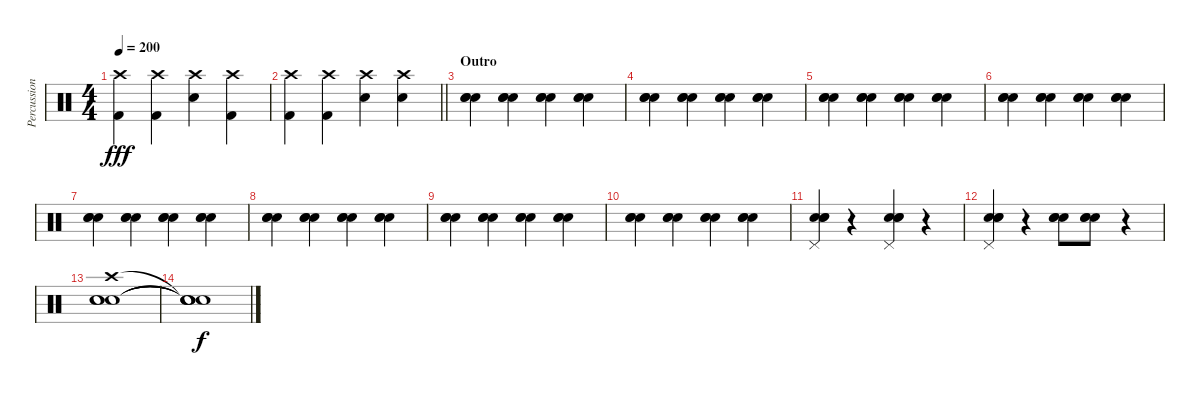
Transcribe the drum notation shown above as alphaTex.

\track ("Percussions" "Percussion") {instrument percussion}
\staff {score}
\articulation defaults
\ts (4 4)
\tempo 200
\clef neutral
\ks c
("Crash high (hit)" "Kick (hit) 2").4{dy fff} ("Crash high (hit)" "Kick (hit) 2").4 ("Crash high (hit)" "Electric Snare (hit)").4 ("Crash high (hit)" "Kick (hit) 2").4 |
\barLineRight lightlight
("Crash high (hit)" "Kick (hit) 2").4 ("Crash high (hit)" "Kick (hit) 2").4 ("Crash high (hit)" "Electric Snare (hit)").4 ("Crash high (hit)" "Electric Snare (hit)").4 |
\section ("" "Outro ")
("Electric Snare (hit)" "Electric Snare (hit)" "Electric Snare (hit)").4 ("Electric Snare (hit)" "Electric Snare (hit)" "Electric Snare (hit)").4 ("Electric Snare (hit)" "Electric Snare (hit)" "Electric Snare (hit)").4 ("Electric Snare (hit)" "Electric Snare (hit)" "Electric Snare (hit)").4 |
("Electric Snare (hit)" "Electric Snare (hit)" "Electric Snare (hit)").4 ("Electric Snare (hit)" "Electric Snare (hit)" "Electric Snare (hit)").4 ("Electric Snare (hit)" "Electric Snare (hit)" "Electric Snare (hit)").4 ("Electric Snare (hit)" "Electric Snare (hit)" "Electric Snare (hit)").4 |
("Electric Snare (hit)" "Electric Snare (hit)" "Electric Snare (hit)").4 ("Electric Snare (hit)" "Electric Snare (hit)" "Electric Snare (hit)").4 ("Electric Snare (hit)" "Electric Snare (hit)" "Electric Snare (hit)").4 ("Electric Snare (hit)" "Electric Snare (hit)" "Electric Snare (hit)").4 |
("Electric Snare (hit)" "Electric Snare (hit)" "Electric Snare (hit)").4 ("Electric Snare (hit)" "Electric Snare (hit)" "Electric Snare (hit)").4 ("Electric Snare (hit)" "Electric Snare (hit)" "Electric Snare (hit)").4 ("Electric Snare (hit)" "Electric Snare (hit)" "Electric Snare (hit)").4 |
("Electric Snare (hit)" "Electric Snare (hit)" "Electric Snare (hit)").4 ("Electric Snare (hit)" "Electric Snare (hit)" "Electric Snare (hit)").4 ("Electric Snare (hit)" "Electric Snare (hit)" "Electric Snare (hit)").4 ("Electric Snare (hit)" "Electric Snare (hit)" "Electric Snare (hit)").4 |
("Electric Snare (hit)" "Electric Snare (hit)" "Electric Snare (hit)").4 ("Electric Snare (hit)" "Electric Snare (hit)" "Electric Snare (hit)").4 ("Electric Snare (hit)" "Electric Snare (hit)" "Electric Snare (hit)").4 ("Electric Snare (hit)" "Electric Snare (hit)" "Electric Snare (hit)").4 |
("Electric Snare (hit)" "Electric Snare (hit)" "Electric Snare (hit)").4 ("Electric Snare (hit)" "Electric Snare (hit)" "Electric Snare (hit)").4 ("Electric Snare (hit)" "Electric Snare (hit)" "Electric Snare (hit)").4 ("Electric Snare (hit)" "Electric Snare (hit)" "Electric Snare (hit)").4 |
("Electric Snare (hit)" "Electric Snare (hit)" "Electric Snare (hit)").4 ("Electric Snare (hit)" "Electric Snare (hit)" "Electric Snare (hit)").4 ("Electric Snare (hit)" "Electric Snare (hit)" "Electric Snare (hit)").4 ("Electric Snare (hit)" "Electric Snare (hit)" "Electric Snare (hit)").4 |
("Pedal Hi-Hat (hit)" "Electric Snare (hit)" "Electric Snare (hit)" "Electric Snare (hit)").4 r.4 ("Pedal Hi-Hat (hit)" "Electric Snare (hit)" "Electric Snare (hit)" "Electric Snare (hit)").4 r.4 |
("Pedal Hi-Hat (hit)" "Electric Snare (hit)" "Electric Snare (hit)" "Electric Snare (hit)").4 r.4 ("Electric Snare (hit)" "Electric Snare (hit)" "Electric Snare (hit)").8 ("Electric Snare (hit)" "Electric Snare (hit)" "Electric Snare (hit)").8 r.4 |
("Crash high (hit)" "Electric Snare (hit)" "Electric Snare (hit)" "Electric Snare (hit)").1 |
("Snare (hit)"{t} "Snare (hit)"{t} "Snare (hit)"{t} "Snare (hit)"{t}).1{dy f}
